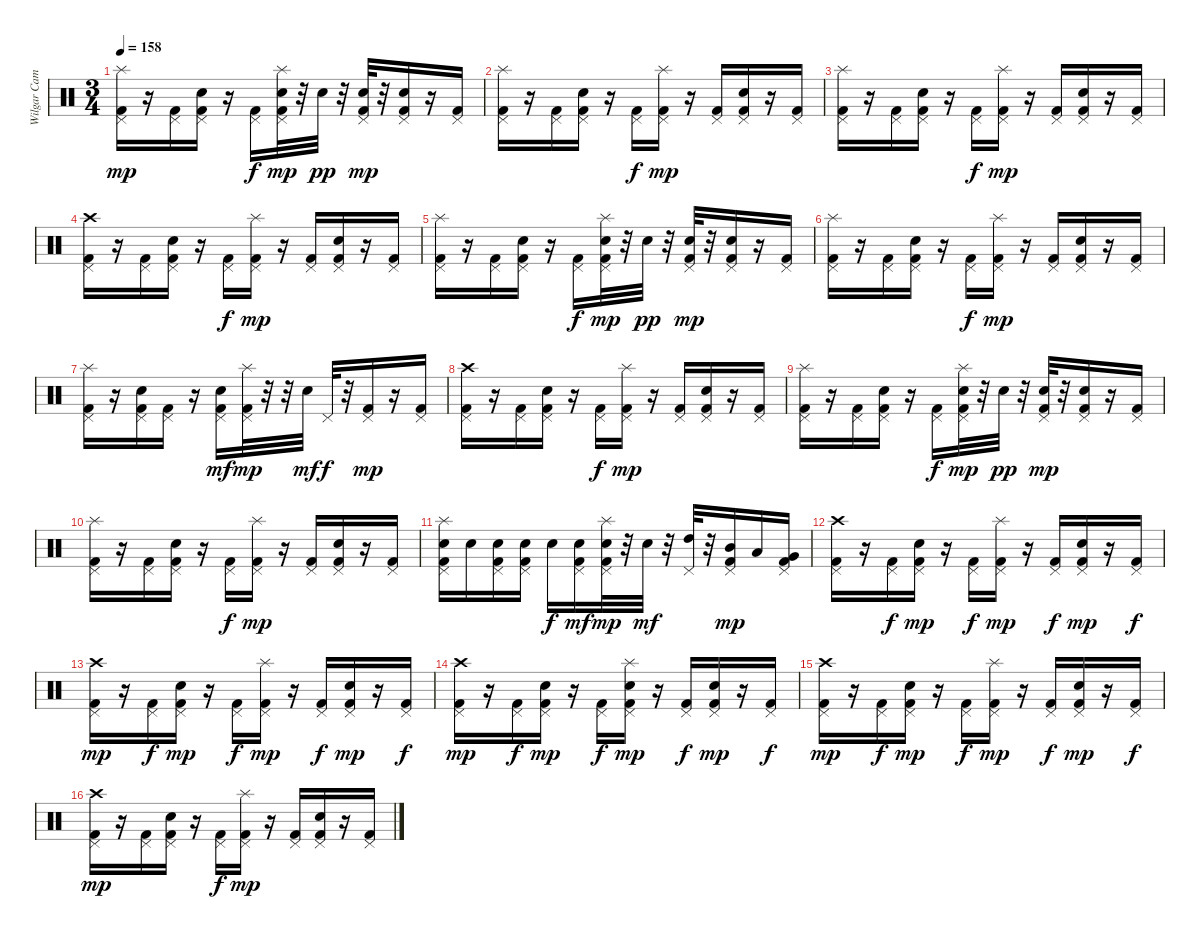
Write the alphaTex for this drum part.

\track ("Wilgar Campbell" "Wilgar Cam") {instrument percussion}
\staff {score}
\articulation defaults
\ts (3 4)
\tempo 158
\clef neutral
\ks c
("Splash (hit)" "Pedal Hi-Hat (hit)" "Kick (hit) 2").16{dy mp} r.16 ("Pedal Hi-Hat (hit)" "Kick (hit) 2").16 ("Snare (hit) 2" "Pedal Hi-Hat (hit)" "Kick (hit) 2").16 r.16 ("Pedal Hi-Hat (hit)" "Kick (hit) 2").16{dy f} ("Splash (hit)" "Pedal Hi-Hat (hit)" "Electric Snare (hit)" "Kick (hit) 2").32{dy mp} r.32 "Electric Snare (hit)".32{dy pp} r.32 ("Pedal Hi-Hat (hit)" "Electric Snare (hit)" "Kick (hit) 2").32{dy mp} r.32 ("Snare (hit) 2" "Pedal Hi-Hat (hit)" "Kick (hit) 2").16 r.16 ("Pedal Hi-Hat (hit)" "Kick (hit) 2").16 |
("Splash (hit)" "Pedal Hi-Hat (hit)" "Kick (hit) 2").16 r.16 ("Pedal Hi-Hat (hit)" "Kick (hit) 2").16 ("Snare (hit) 2" "Pedal Hi-Hat (hit)" "Kick (hit) 2").16 r.16 ("Pedal Hi-Hat (hit)" "Kick (hit) 2").16{dy f} ("Splash (hit)" "Pedal Hi-Hat (hit)" "Kick (hit) 2").16{dy mp} r.16 ("Pedal Hi-Hat (hit)" "Kick (hit) 2").16 ("Snare (hit) 2" "Pedal Hi-Hat (hit)" "Kick (hit) 2").16 r.16 ("Pedal Hi-Hat (hit)" "Kick (hit) 2").16 |
("Splash (hit)" "Pedal Hi-Hat (hit)" "Kick (hit) 2").16 r.16 ("Pedal Hi-Hat (hit)" "Kick (hit) 2").16 ("Snare (hit) 2" "Pedal Hi-Hat (hit)" "Kick (hit) 2").16 r.16 ("Pedal Hi-Hat (hit)" "Kick (hit) 2").16{dy f} ("Splash (hit)" "Pedal Hi-Hat (hit)" "Kick (hit) 2").16{dy mp} r.16 ("Pedal Hi-Hat (hit)" "Kick (hit) 2").16 ("Snare (hit) 2" "Pedal Hi-Hat (hit)" "Kick (hit) 2").16 r.16 ("Pedal Hi-Hat (hit)" "Kick (hit) 2").16 |
("Crash high (hit)" "Pedal Hi-Hat (hit)" "Kick (hit) 2").16 r.16 ("Pedal Hi-Hat (hit)" "Kick (hit) 2").16 ("Snare (hit) 2" "Pedal Hi-Hat (hit)" "Kick (hit) 2").16 r.16 ("Pedal Hi-Hat (hit)" "Kick (hit) 2").16{dy f} ("Splash (hit)" "Pedal Hi-Hat (hit)" "Kick (hit) 2").16{dy mp} r.16 ("Pedal Hi-Hat (hit)" "Kick (hit) 2").16 ("Snare (hit) 2" "Pedal Hi-Hat (hit)" "Kick (hit) 2").16 r.16 ("Pedal Hi-Hat (hit)" "Kick (hit) 2").16 |
("Splash (hit)" "Pedal Hi-Hat (hit)" "Kick (hit) 2").16 r.16 ("Pedal Hi-Hat (hit)" "Kick (hit) 2").16 ("Snare (hit) 2" "Pedal Hi-Hat (hit)" "Kick (hit) 2").16 r.16 ("Pedal Hi-Hat (hit)" "Kick (hit) 2").16{dy f} ("Splash (hit)" "Pedal Hi-Hat (hit)" "Electric Snare (hit)" "Kick (hit) 2").32{dy mp} r.32 "Electric Snare (hit)".32{dy pp} r.32 ("Pedal Hi-Hat (hit)" "Electric Snare (hit)" "Kick (hit) 2").32{dy mp} r.32 ("Snare (hit) 2" "Pedal Hi-Hat (hit)" "Kick (hit) 2").16 r.16 ("Pedal Hi-Hat (hit)" "Kick (hit) 2").16 |
("Splash (hit)" "Pedal Hi-Hat (hit)" "Kick (hit) 2").16 r.16 ("Pedal Hi-Hat (hit)" "Kick (hit) 2").16 ("Snare (hit) 2" "Pedal Hi-Hat (hit)" "Kick (hit) 2").16 r.16 ("Pedal Hi-Hat (hit)" "Kick (hit) 2").16{dy f} ("Splash (hit)" "Pedal Hi-Hat (hit)" "Kick (hit) 2").16{dy mp} r.16 ("Pedal Hi-Hat (hit)" "Kick (hit) 2").16 ("Snare (hit) 2" "Pedal Hi-Hat (hit)" "Kick (hit) 2").16 r.16 ("Pedal Hi-Hat (hit)" "Kick (hit) 2").16 |
("Splash (hit)" "Pedal Hi-Hat (hit)" "Kick (hit) 2").16 r.16 ("Pedal Hi-Hat (hit)" "Electric Snare (hit)" "Kick (hit) 2").16 ("Pedal Hi-Hat (hit)" "Kick (hit) 2").16 r.16 ("Pedal Hi-Hat (hit)" "Electric Snare (hit)" "Kick (hit) 2").16{dy mf} ("Splash (hit)" "Pedal Hi-Hat (hit)" "Kick (hit) 2").32{dy mp} r.32 r.32 "Electric Snare (hit)".32{dy mf} "Pedal Hi-Hat (hit)".32{dy f} r.32 ("Pedal Hi-Hat (hit)" "Kick (hit) 2").16{dy mp} r.16 ("Pedal Hi-Hat (hit)" "Kick (hit) 2").16 |
("Crash high (hit)" "Pedal Hi-Hat (hit)" "Kick (hit) 2").16 r.16 ("Pedal Hi-Hat (hit)" "Kick (hit) 2").16 ("Snare (hit) 2" "Pedal Hi-Hat (hit)" "Kick (hit) 2").16 r.16 ("Pedal Hi-Hat (hit)" "Kick (hit) 2").16{dy f} ("Splash (hit)" "Pedal Hi-Hat (hit)" "Kick (hit) 2").16{dy mp} r.16 ("Pedal Hi-Hat (hit)" "Kick (hit) 2").16 ("Snare (hit) 2" "Pedal Hi-Hat (hit)" "Kick (hit) 2").16 r.16 ("Pedal Hi-Hat (hit)" "Kick (hit) 2").16 |
("Splash (hit)" "Pedal Hi-Hat (hit)" "Kick (hit) 2").16 r.16 ("Pedal Hi-Hat (hit)" "Kick (hit) 2").16 ("Snare (hit) 2" "Pedal Hi-Hat (hit)" "Kick (hit) 2").16 r.16 ("Pedal Hi-Hat (hit)" "Kick (hit) 2").16{dy f} ("Splash (hit)" "Pedal Hi-Hat (hit)" "Electric Snare (hit)" "Kick (hit) 2").32{dy mp} r.32 "Electric Snare (hit)".32{dy pp} r.32 ("Pedal Hi-Hat (hit)" "Electric Snare (hit)" "Kick (hit) 2").32{dy mp} r.32 ("Snare (hit) 2" "Pedal Hi-Hat (hit)" "Kick (hit) 2").16 r.16 ("Pedal Hi-Hat (hit)" "Kick (hit) 2").16 |
("Splash (hit)" "Pedal Hi-Hat (hit)" "Kick (hit) 2").16 r.16 ("Pedal Hi-Hat (hit)" "Kick (hit) 2").16 ("Snare (hit) 2" "Pedal Hi-Hat (hit)" "Kick (hit) 2").16 r.16 ("Pedal Hi-Hat (hit)" "Kick (hit) 2").16{dy f} ("Splash (hit)" "Pedal Hi-Hat (hit)" "Kick (hit) 2").16{dy mp} r.16 ("Pedal Hi-Hat (hit)" "Kick (hit) 2").16 ("Snare (hit) 2" "Pedal Hi-Hat (hit)" "Kick (hit) 2").16 r.16 ("Pedal Hi-Hat (hit)" "Kick (hit) 2").16 |
("Splash (hit)" "Pedal Hi-Hat (hit)" "Electric Snare (hit)" "Kick (hit) 2").16 "Electric Snare (hit)".16 ("Pedal Hi-Hat (hit)" "Electric Snare (hit)" "Kick (hit) 2").16 ("Pedal Hi-Hat (hit)" "Electric Snare (hit)" "Kick (hit) 2").16 "Snare (hit) 2".16{dy f} ("Pedal Hi-Hat (hit)" "Snare (hit) 2" "Kick (hit) 2").16{dy mf} ("Splash (hit)" "Pedal Hi-Hat (hit)" "Snare (hit) 2" "Kick (hit) 2").32{dy mp} r.32 "Snare (hit) 2".32{dy mf} r.32 ("Pedal Hi-Hat (hit)" "High Tom (hit)").32 r.32 ("Pedal Hi-Hat (hit)" "Mid Tom (hit)" "Kick (hit) 2").16{dy mp} "Low Tom (hit)".16 ("Pedal Hi-Hat (hit)" "Very Low Tom (hit)" "Kick (hit) 2").16 |
("Crash high (hit)" "Pedal Hi-Hat (hit)" "Kick (hit) 2").16 r.16 ("Pedal Hi-Hat (hit)" "Kick (hit) 2").16{dy f} ("Electric Snare (hit)" "Pedal Hi-Hat (hit)" "Kick (hit) 2").16{dy mp} r.16 ("Pedal Hi-Hat (hit)" "Kick (hit) 2").16{dy f} ("Splash (hit)" "Pedal Hi-Hat (hit)" "Kick (hit) 2").16{dy mp} r.16 ("Pedal Hi-Hat (hit)" "Kick (hit) 2").16{dy f} ("Electric Snare (hit)" "Pedal Hi-Hat (hit)" "Kick (hit) 2").16{dy mp} r.16 ("Pedal Hi-Hat (hit)" "Kick (hit) 2").16{dy f} |
("Crash high (hit)" "Pedal Hi-Hat (hit)" "Kick (hit) 2").16{dy mp} r.16 ("Pedal Hi-Hat (hit)" "Kick (hit) 2").16{dy f} ("Electric Snare (hit)" "Pedal Hi-Hat (hit)" "Kick (hit) 2").16{dy mp} r.16 ("Pedal Hi-Hat (hit)" "Kick (hit) 2").16{dy f} ("Splash (hit)" "Pedal Hi-Hat (hit)" "Kick (hit) 2").16{dy mp} r.16 ("Pedal Hi-Hat (hit)" "Kick (hit) 2").16{dy f} ("Electric Snare (hit)" "Pedal Hi-Hat (hit)" "Kick (hit) 2").16{dy mp} r.16 ("Pedal Hi-Hat (hit)" "Kick (hit) 2").16{dy f} |
("Crash high (hit)" "Pedal Hi-Hat (hit)" "Kick (hit) 2").16{dy mp} r.16 ("Pedal Hi-Hat (hit)" "Kick (hit) 2").16{dy f} ("Electric Snare (hit)" "Pedal Hi-Hat (hit)" "Kick (hit) 2").16{dy mp} r.16 ("Pedal Hi-Hat (hit)" "Kick (hit) 2").16{dy f} ("Splash (hit)" "Electric Snare (hit)" "Pedal Hi-Hat (hit)" "Kick (hit) 2").16{dy mp} r.16 ("Pedal Hi-Hat (hit)" "Kick (hit) 2").16{dy f} ("Electric Snare (hit)" "Pedal Hi-Hat (hit)" "Kick (hit) 2").16{dy mp} r.16 ("Pedal Hi-Hat (hit)" "Kick (hit) 2").16{dy f} |
("Crash high (hit)" "Pedal Hi-Hat (hit)" "Kick (hit) 2").16{dy mp} r.16 ("Pedal Hi-Hat (hit)" "Kick (hit) 2").16{dy f} ("Electric Snare (hit)" "Pedal Hi-Hat (hit)" "Kick (hit) 2").16{dy mp} r.16 ("Pedal Hi-Hat (hit)" "Kick (hit) 2").16{dy f} ("Splash (hit)" "Pedal Hi-Hat (hit)" "Kick (hit) 2").16{dy mp} r.16 ("Pedal Hi-Hat (hit)" "Kick (hit) 2").16{dy f} ("Electric Snare (hit)" "Pedal Hi-Hat (hit)" "Kick (hit) 2").16{dy mp} r.16 ("Pedal Hi-Hat (hit)" "Kick (hit) 2").16{dy f} |
("Crash high (hit)" "Pedal Hi-Hat (hit)" "Kick (hit) 2").16{dy mp} r.16 ("Pedal Hi-Hat (hit)" "Kick (hit) 2").16 ("Snare (hit) 2" "Pedal Hi-Hat (hit)" "Kick (hit) 2").16 r.16 ("Pedal Hi-Hat (hit)" "Kick (hit) 2").16{dy f} ("Splash (hit)" "Pedal Hi-Hat (hit)" "Kick (hit) 2").16{dy mp} r.16 ("Pedal Hi-Hat (hit)" "Kick (hit) 2").16 ("Snare (hit) 2" "Pedal Hi-Hat (hit)" "Kick (hit) 2").16 r.16 ("Pedal Hi-Hat (hit)" "Kick (hit) 2").16
